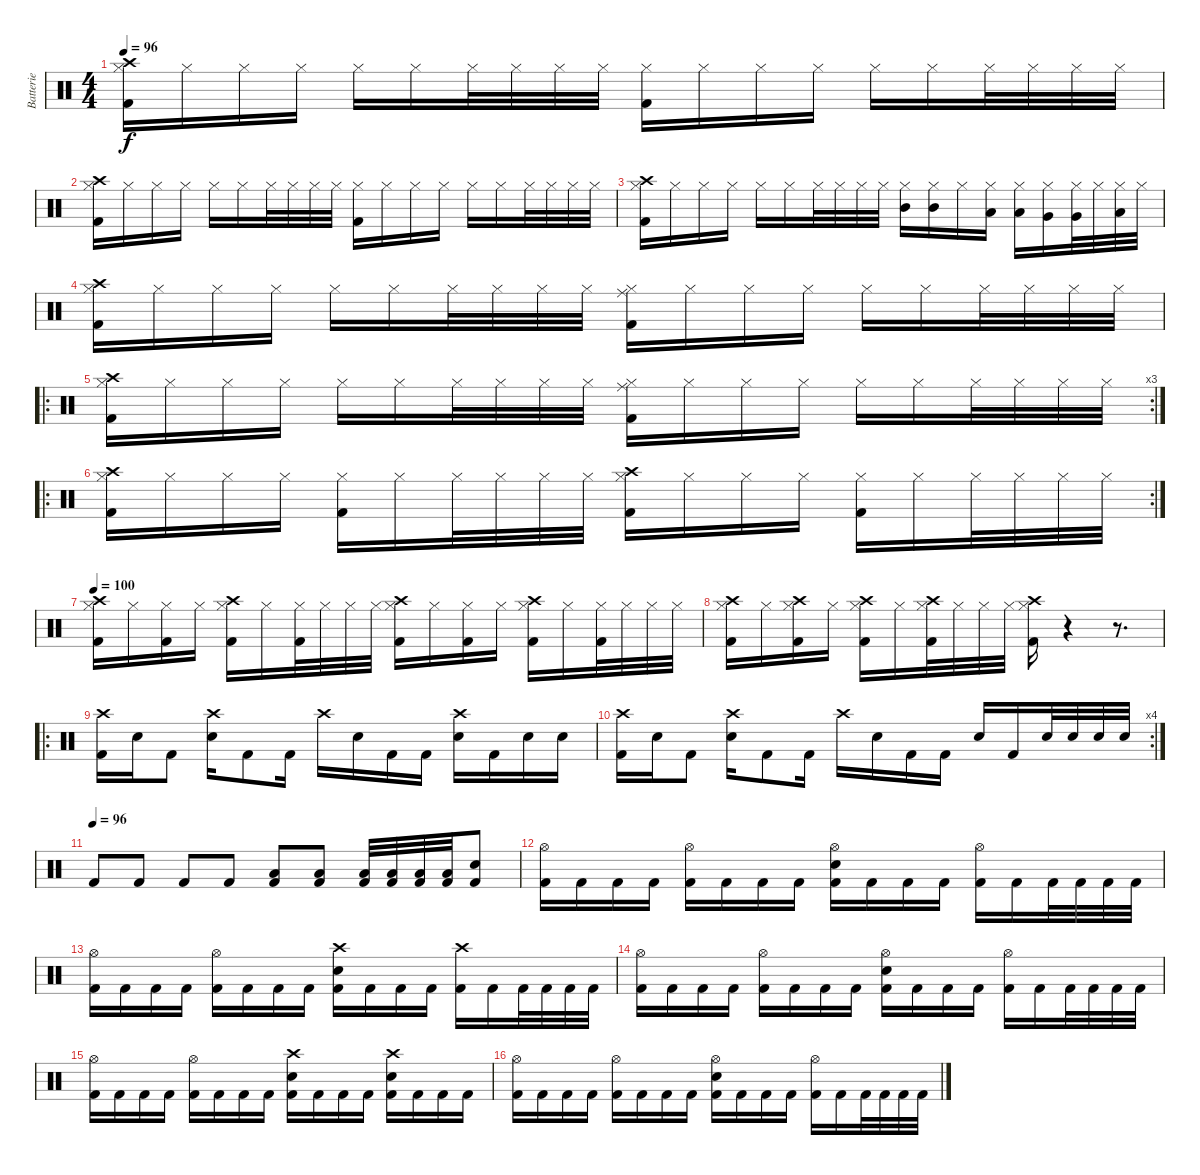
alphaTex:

\track ("Batterie" "Batterie") {instrument percussion}
\staff {score}
\articulation defaults
\ts (4 4)
\tempo 96
\clef neutral
\ks c
("Hi-Hat (closed)" "Crash high (hit)" "Kick (hit) 2").16{dy f} "Hi-Hat (closed)".16 "Hi-Hat (closed)".16 "Hi-Hat (closed)".16 "Hi-Hat (closed)".16 "Hi-Hat (closed)".16 "Hi-Hat (closed)".32 "Hi-Hat (closed)".32 "Hi-Hat (closed)".32 "Hi-Hat (closed)".32 ("Hi-Hat (closed)" "Kick (hit) 2").16 "Hi-Hat (closed)".16 "Hi-Hat (closed)".16 "Hi-Hat (closed)".16 "Hi-Hat (closed)".16 "Hi-Hat (closed)".16 "Hi-Hat (closed)".32 "Hi-Hat (closed)".32 "Hi-Hat (closed)".32 "Hi-Hat (closed)".32 |
("Hi-Hat (closed)" "Crash high (hit)" "Kick (hit) 2").16 "Hi-Hat (closed)".16 "Hi-Hat (closed)".16 "Hi-Hat (closed)".16 "Hi-Hat (closed)".16 "Hi-Hat (closed)".16 "Hi-Hat (closed)".32 "Hi-Hat (closed)".32 "Hi-Hat (closed)".32 "Hi-Hat (closed)".32 ("Hi-Hat (closed)" "Kick (hit) 2").16 "Hi-Hat (closed)".16 "Hi-Hat (closed)".16 "Hi-Hat (closed)".16 "Hi-Hat (closed)".16 "Hi-Hat (closed)".16 "Hi-Hat (closed)".32 "Hi-Hat (closed)".32 "Hi-Hat (closed)".32 "Hi-Hat (closed)".32 |
("Hi-Hat (closed)" "Crash high (hit)" "Kick (hit) 2").16 "Hi-Hat (closed)".16 "Hi-Hat (closed)".16 "Hi-Hat (closed)".16 "Hi-Hat (closed)".16 "Hi-Hat (closed)".16 "Hi-Hat (closed)".32 "Hi-Hat (closed)".32 "Hi-Hat (closed)".32 "Hi-Hat (closed)".32 ("Hi-Hat (closed)" "Mid Tom (hit)").16 ("Hi-Hat (closed)" "Mid Tom (hit)").16 "Hi-Hat (closed)".16 ("Hi-Hat (closed)" "Low Tom (hit)").16 ("Hi-Hat (closed)" "Low Tom (hit)").16 ("Hi-Hat (closed)" "Very Low Tom (hit)").16 ("Hi-Hat (closed)" "Very Low Tom (hit)").32 "Hi-Hat (closed)".32 ("Hi-Hat (closed)" "Low Floor Tom (hit)").32 "Hi-Hat (closed)".32 |
("Hi-Hat (closed)" "Crash high (hit)" "Kick (hit) 2").16 "Hi-Hat (closed)".16 "Hi-Hat (closed)".16 "Hi-Hat (closed)".16 "Hi-Hat (closed)".16 "Hi-Hat (closed)".16 "Hi-Hat (closed)".32 "Hi-Hat (closed)".32 "Hi-Hat (closed)".32 "Hi-Hat (closed)".32 ("Hi-Hat (closed)" "Ride (middle)" "Kick (hit) 2").16 "Hi-Hat (closed)".16 "Hi-Hat (closed)".16 "Hi-Hat (closed)".16 "Hi-Hat (closed)".16 "Hi-Hat (closed)".16 "Hi-Hat (closed)".32 "Hi-Hat (closed)".32 "Hi-Hat (closed)".32 "Hi-Hat (closed)".32 |
\ro
\rc 3
("Hi-Hat (closed)" "Crash high (hit)" "Kick (hit) 2").16 "Hi-Hat (closed)".16 "Hi-Hat (closed)".16 "Hi-Hat (closed)".16 "Hi-Hat (closed)".16 "Hi-Hat (closed)".16 "Hi-Hat (closed)".32 "Hi-Hat (closed)".32 "Hi-Hat (closed)".32 "Hi-Hat (closed)".32 ("Hi-Hat (closed)" "Ride (middle)" "Kick (hit) 2").16 "Hi-Hat (closed)".16 "Hi-Hat (closed)".16 "Hi-Hat (closed)".16 "Hi-Hat (closed)".16 "Hi-Hat (closed)".16 "Hi-Hat (closed)".32 "Hi-Hat (closed)".32 "Hi-Hat (closed)".32 "Hi-Hat (closed)".32 |
\ro
\rc 2
("Hi-Hat (closed)" "Crash high (hit)" "Kick (hit) 2").16 "Hi-Hat (closed)".16 "Hi-Hat (closed)".16 "Hi-Hat (closed)".16 ("Hi-Hat (closed)" "Kick (hit) 2").16 "Hi-Hat (closed)".16 "Hi-Hat (closed)".32 "Hi-Hat (closed)".32 "Hi-Hat (closed)".32 "Hi-Hat (closed)".32 ("Hi-Hat (closed)" "Crash high (hit)" "Kick (hit) 2").16 "Hi-Hat (closed)".16 "Hi-Hat (closed)".16 "Hi-Hat (closed)".16 ("Hi-Hat (closed)" "Kick (hit) 2").16 "Hi-Hat (closed)".16 "Hi-Hat (closed)".32 "Hi-Hat (closed)".32 "Hi-Hat (closed)".32 "Hi-Hat (closed)".32 |
\tempo 100
("Hi-Hat (closed)" "Crash high (hit)" "Kick (hit) 2").16 "Hi-Hat (closed)".16 ("Hi-Hat (closed)" "Kick (hit) 2").16 "Hi-Hat (closed)".16 ("Hi-Hat (closed)" "Crash high (hit)" "Kick (hit) 2").16 "Hi-Hat (closed)".16 ("Hi-Hat (closed)" "Kick (hit) 2").32 "Hi-Hat (closed)".32 "Hi-Hat (closed)".32 "Hi-Hat (closed)".32 ("Hi-Hat (closed)" "Crash high (hit)" "Kick (hit) 2").16 "Hi-Hat (closed)".16 ("Hi-Hat (closed)" "Kick (hit) 2").16 "Hi-Hat (closed)".16 ("Hi-Hat (closed)" "Crash high (hit)" "Kick (hit) 2").16 "Hi-Hat (closed)".16 ("Hi-Hat (closed)" "Kick (hit) 2").32 "Hi-Hat (closed)".32 "Hi-Hat (closed)".32 "Hi-Hat (closed)".32 |
("Hi-Hat (closed)" "Crash high (hit)" "Kick (hit) 2").16 "Hi-Hat (closed)".16 ("Hi-Hat (closed)" "Crash high (hit)" "Kick (hit) 2").16 "Hi-Hat (closed)".16 ("Hi-Hat (closed)" "Crash high (hit)" "Kick (hit) 2").16 "Hi-Hat (closed)".16 ("Hi-Hat (closed)" "Crash high (hit)" "Kick (hit) 2").32 "Hi-Hat (closed)".32 "Hi-Hat (closed)".32 "Hi-Hat (closed)".32 ("Hi-Hat (closed)" "Crash high (hit)" "Kick (hit) 2").16 r.4 r.8{d} |
\ro
("Crash high (hit)" "Kick (hit) 2").16 "Snare (hit) 2".16 "Kick (hit) 2".8 ("Crash high (hit)" "Snare (hit) 2").16 "Kick (hit) 2".8 "Kick (hit) 2".16 "Crash high (hit)".16 "Snare (hit) 2".16 "Kick (hit) 2".16 "Kick (hit) 2".16 ("Crash high (hit)" "Snare (hit) 2").16 "Kick (hit) 2".16 "Snare (hit) 2".16 "Snare (hit) 2".16 |
\rc 4
("Crash high (hit)" "Kick (hit) 2").16 "Snare (hit) 2".16 "Kick (hit) 2".8 ("Crash high (hit)" "Snare (hit) 2").16 "Kick (hit) 2".8 "Kick (hit) 2".16 "Crash high (hit)".16 "Snare (hit) 2".16 "Kick (hit) 2".16 "Kick (hit) 2".16 "Snare (hit) 2".16 "Kick (hit) 2".16 "Snare (hit) 2".32 "Snare (hit) 2".32 "Snare (hit) 2".32 "Snare (hit) 2".32 |
\tempo (96)
"Kick (hit) 2".8 "Kick (hit) 2".8 "Kick (hit) 2".8 "Kick (hit) 2".8 ("Low Floor Tom (hit)" "Kick (hit) 2").8 ("Low Floor Tom (hit)" "Kick (hit) 2").8 ("Low Floor Tom (hit)" "Kick (hit) 2").32 ("Low Floor Tom (hit)" "Kick (hit) 2").32 ("Low Floor Tom (hit)" "Kick (hit) 2").32 ("Low Floor Tom (hit)" "Kick (hit) 2").32 ("Snare (hit) 2" "Kick (hit) 2").8 |
("Hi-Hat (open)" "Kick (hit) 2").16 "Kick (hit) 2".16 "Kick (hit) 2".16 "Kick (hit) 2".16 ("Hi-Hat (open)" "Kick (hit) 2").16 "Kick (hit) 2".16 "Kick (hit) 2".16 "Kick (hit) 2".16 ("Hi-Hat (open)" "Snare (hit) 2" "Kick (hit) 2").16 "Kick (hit) 2".16 "Kick (hit) 2".16 "Kick (hit) 2".16 ("Hi-Hat (open)" "Kick (hit) 2").16 "Kick (hit) 2".16 "Kick (hit) 2".32 "Kick (hit) 2".32 "Kick (hit) 2".32 "Kick (hit) 2".32 |
("Hi-Hat (open)" "Kick (hit) 2").16 "Kick (hit) 2".16 "Kick (hit) 2".16 "Kick (hit) 2".16 ("Hi-Hat (open)" "Kick (hit) 2").16 "Kick (hit) 2".16 "Kick (hit) 2".16 "Kick (hit) 2".16 ("Crash high (hit)" "Snare (hit) 2" "Kick (hit) 2").16 "Kick (hit) 2".16 "Kick (hit) 2".16 "Kick (hit) 2".16 ("Crash high (hit)" "Kick (hit) 2").16 "Kick (hit) 2".16 "Kick (hit) 2".32 "Kick (hit) 2".32 "Kick (hit) 2".32 "Kick (hit) 2".32 |
("Hi-Hat (open)" "Kick (hit) 2").16 "Kick (hit) 2".16 "Kick (hit) 2".16 "Kick (hit) 2".16 ("Hi-Hat (open)" "Kick (hit) 2").16 "Kick (hit) 2".16 "Kick (hit) 2".16 "Kick (hit) 2".16 ("Hi-Hat (open)" "Snare (hit) 2" "Kick (hit) 2").16 "Kick (hit) 2".16 "Kick (hit) 2".16 "Kick (hit) 2".16 ("Hi-Hat (open)" "Kick (hit) 2").16 "Kick (hit) 2".16 "Kick (hit) 2".32 "Kick (hit) 2".32 "Kick (hit) 2".32 "Kick (hit) 2".32 |
("Hi-Hat (open)" "Kick (hit) 2").16 "Kick (hit) 2".16 "Kick (hit) 2".16 "Kick (hit) 2".16 ("Hi-Hat (open)" "Kick (hit) 2").16 "Kick (hit) 2".16 "Kick (hit) 2".16 "Kick (hit) 2".16 ("Crash high (hit)" "Snare (hit) 2" "Kick (hit) 2").16 "Kick (hit) 2".16 "Kick (hit) 2".16 "Kick (hit) 2".16 ("Crash high (hit)" "Snare (hit) 2" "Kick (hit) 2").16 "Kick (hit) 2".16 "Kick (hit) 2".16 "Kick (hit) 2".16 |
("Hi-Hat (open)" "Kick (hit) 2").16 "Kick (hit) 2".16 "Kick (hit) 2".16 "Kick (hit) 2".16 ("Hi-Hat (open)" "Kick (hit) 2").16 "Kick (hit) 2".16 "Kick (hit) 2".16 "Kick (hit) 2".16 ("Hi-Hat (open)" "Snare (hit) 2" "Kick (hit) 2").16 "Kick (hit) 2".16 "Kick (hit) 2".16 "Kick (hit) 2".16 ("Hi-Hat (open)" "Kick (hit) 2").16 "Kick (hit) 2".16 "Kick (hit) 2".32 "Kick (hit) 2".32 "Kick (hit) 2".32 "Kick (hit) 2".32
